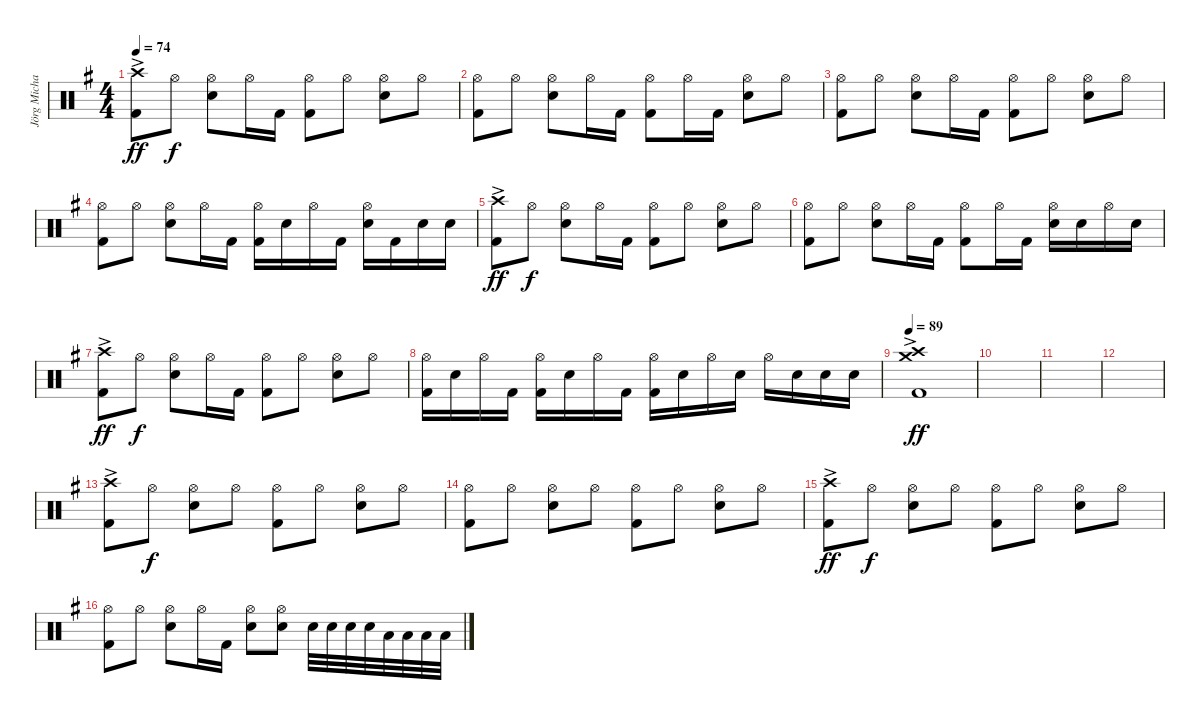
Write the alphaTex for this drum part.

\track ("Jörg Michael" "Jörg Micha") {instrument percussion}
\staff {score}
\articulation defaults
\ts (4 4)
\tempo 74
\clef neutral
\ks g
("Crash high (hit)"{ac} "Kick (hit) 2"{ac}).8{dy ff} "Hi-Hat (open)".8{dy f} ("Hi-Hat (open)" "Electric Snare (hit)").8 "Hi-Hat (open)".16 "Kick (hit) 2".16 ("Hi-Hat (open)" "Kick (hit) 2").8 "Hi-Hat (open)".8 ("Hi-Hat (open)" "Electric Snare (hit)").8 "Hi-Hat (open)".8 |
("Hi-Hat (open)" "Kick (hit) 2").8 "Hi-Hat (open)".8 ("Hi-Hat (open)" "Electric Snare (hit)").8 "Hi-Hat (open)".16 "Kick (hit) 2".16 ("Hi-Hat (open)" "Kick (hit) 2").8 "Hi-Hat (open)".16 "Kick (hit) 2".16 ("Hi-Hat (open)" "Electric Snare (hit)").8 "Hi-Hat (open)".8 |
("Hi-Hat (open)" "Kick (hit) 2").8 "Hi-Hat (open)".8 ("Hi-Hat (open)" "Electric Snare (hit)").8 "Hi-Hat (open)".16 "Kick (hit) 2".16 ("Hi-Hat (open)" "Kick (hit) 2").8 "Hi-Hat (open)".8 ("Hi-Hat (open)" "Electric Snare (hit)").8 "Hi-Hat (open)".8 |
("Hi-Hat (open)" "Kick (hit) 2").8 "Hi-Hat (open)".8 ("Hi-Hat (open)" "Electric Snare (hit)").8 "Hi-Hat (open)".16 "Kick (hit) 2".16 ("Hi-Hat (open)" "Kick (hit) 2").16 "Electric Snare (hit)".16 "Hi-Hat (open)".16 "Kick (hit) 2".16 ("Hi-Hat (open)" "Electric Snare (hit)").16 "Kick (hit) 2".16 "Electric Snare (hit)".16 "Electric Snare (hit)".16 |
("Crash high (hit)"{ac} "Kick (hit) 2"{ac}).8{dy ff} "Hi-Hat (open)".8{dy f} ("Hi-Hat (open)" "Electric Snare (hit)").8 "Hi-Hat (open)".16 "Kick (hit) 2".16 ("Hi-Hat (open)" "Kick (hit) 2").8 "Hi-Hat (open)".8 ("Hi-Hat (open)" "Electric Snare (hit)").8 "Hi-Hat (open)".8 |
("Hi-Hat (open)" "Kick (hit) 2").8 "Hi-Hat (open)".8 ("Hi-Hat (open)" "Electric Snare (hit)").8 "Hi-Hat (open)".16 "Kick (hit) 2".16 ("Hi-Hat (open)" "Kick (hit) 2").8 "Hi-Hat (open)".16 "Kick (hit) 2".16 ("Hi-Hat (open)" "Electric Snare (hit)").16 "Electric Snare (hit)".16 "Hi-Hat (open)".16 "Electric Snare (hit)".16 |
("Crash high (hit)"{ac} "Kick (hit) 2"{ac}).8{dy ff} "Hi-Hat (open)".8{dy f} ("Hi-Hat (open)" "Electric Snare (hit)").8 "Hi-Hat (open)".16 "Kick (hit) 2".16 ("Hi-Hat (open)" "Kick (hit) 2").8 "Hi-Hat (open)".8 ("Hi-Hat (open)" "Electric Snare (hit)").8 "Hi-Hat (open)".8 |
("Hi-Hat (open)" "Kick (hit) 2").16 "Electric Snare (hit)".16 "Hi-Hat (open)".16 "Kick (hit) 2".16 ("Hi-Hat (open)" "Kick (hit) 2").16 "Electric Snare (hit)".16 "Hi-Hat (open)".16 "Kick (hit) 2".16 ("Hi-Hat (open)" "Kick (hit) 2").16 "Electric Snare (hit)".16 "Hi-Hat (open)".16 "Electric Snare (hit)".16 "Hi-Hat (open)".16 "Electric Snare (hit)".16 "Electric Snare (hit)".16 "Electric Snare (hit)".16 |
\tempo 89
("Crash high (hit)"{ac} "Kick (hit) 2"{ac} "Crash medium (hit)"{ac}).1{dy ff} |
|
|
|
("Crash high (hit)"{ac} "Kick (hit) 2"{ac}).8 "Hi-Hat (open)".8{dy f} ("Hi-Hat (open)" "Electric Snare (hit)").8 "Hi-Hat (open)".8 ("Hi-Hat (open)" "Kick (hit) 2").8 "Hi-Hat (open)".8 ("Hi-Hat (open)" "Electric Snare (hit)").8 "Hi-Hat (open)".8 |
("Hi-Hat (open)" "Kick (hit) 2").8 "Hi-Hat (open)".8 ("Hi-Hat (open)" "Electric Snare (hit)").8 "Hi-Hat (open)".8 ("Hi-Hat (open)" "Kick (hit) 2").8 "Hi-Hat (open)".8 ("Hi-Hat (open)" "Electric Snare (hit)").8 "Hi-Hat (open)".8 |
("Crash high (hit)"{ac} "Kick (hit) 2"{ac}).8{dy ff} "Hi-Hat (open)".8{dy f} ("Hi-Hat (open)" "Electric Snare (hit)").8 "Hi-Hat (open)".8 ("Hi-Hat (open)" "Kick (hit) 2").8 "Hi-Hat (open)".8 ("Hi-Hat (open)" "Electric Snare (hit)").8 "Hi-Hat (open)".8 |
("Hi-Hat (open)" "Kick (hit) 2").8 "Hi-Hat (open)".8 ("Hi-Hat (open)" "Electric Snare (hit)").8 "Hi-Hat (open)".16 "Kick (hit) 2".16 ("Hi-Hat (open)" "Electric Snare (hit)").8 ("Hi-Hat (open)" "Electric Snare (hit)").8 "Electric Snare (hit)".32 "Electric Snare (hit)".32 "Electric Snare (hit)".32 "Electric Snare (hit)".32 "Low Tom (hit)".32 "Low Tom (hit)".32 "Low Tom (hit)".32 "Low Tom (hit)".32
